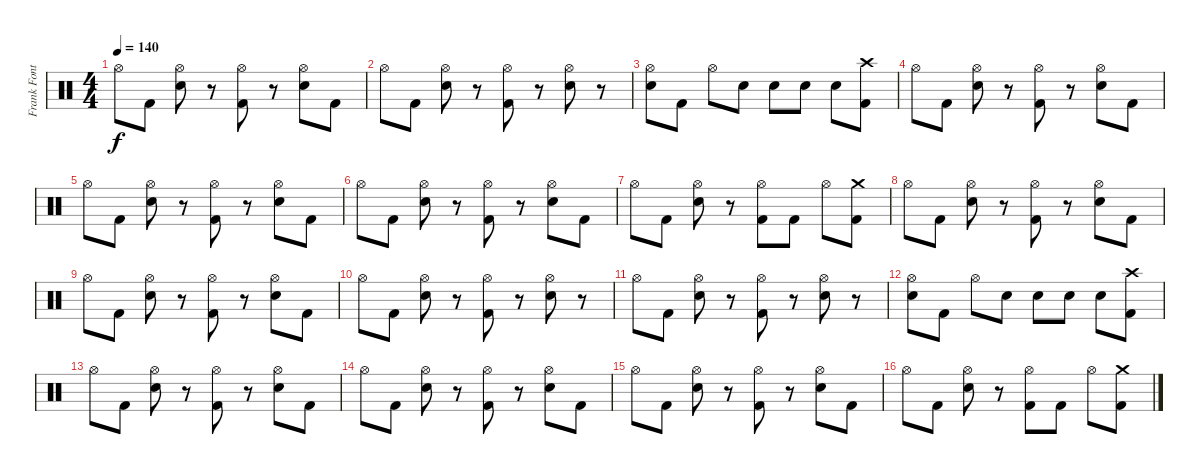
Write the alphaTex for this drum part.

\track ("Frank Fontsere" "Frank Font") {instrument percussion}
\staff {score}
\articulation defaults
\ts (4 4)
\tempo 140
\clef neutral
\ks c "Hi-Hat (open)".8{dy f} "Kick (hit) 2".8
("Hi-Hat (open)" "Electric Snare (hit)").8 r.8 ("Hi-Hat (open)" "Kick (hit) 2").8 r.8 ("Hi-Hat (open)" "Electric Snare (hit)").8 "Kick (hit) 2".8 |
"Hi-Hat (open)".8 "Kick (hit) 2".8 ("Hi-Hat (open)" "Electric Snare (hit)").8 r.8 ("Hi-Hat (open)" "Kick (hit) 2").8 r.8 ("Hi-Hat (open)" "Electric Snare (hit)").8 r.8 |
("Hi-Hat (open)" "Electric Snare (hit)").8 "Kick (hit) 2".8 "Hi-Hat (open)".8 "Electric Snare (hit)".8 "Electric Snare (hit)".8 "Electric Snare (hit)".8 "Electric Snare (hit)".8 ("Crash high (hit)" "Kick (hit) 2").8 |
"Hi-Hat (open)".8 "Kick (hit) 2".8 ("Hi-Hat (open)" "Electric Snare (hit)").8 r.8 ("Hi-Hat (open)" "Kick (hit) 2").8 r.8 ("Hi-Hat (open)" "Electric Snare (hit)").8 "Kick (hit) 2".8 |
"Hi-Hat (open)".8 "Kick (hit) 2".8 ("Hi-Hat (open)" "Electric Snare (hit)").8 r.8 ("Hi-Hat (open)" "Kick (hit) 2").8 r.8 ("Hi-Hat (open)" "Electric Snare (hit)").8 "Kick (hit) 2".8 |
"Hi-Hat (open)".8 "Kick (hit) 2".8 ("Hi-Hat (open)" "Electric Snare (hit)").8 r.8 ("Hi-Hat (open)" "Kick (hit) 2").8 r.8 ("Hi-Hat (open)" "Electric Snare (hit)").8 "Kick (hit) 2".8 |
"Hi-Hat (open)".8 "Kick (hit) 2".8 ("Hi-Hat (open)" "Electric Snare (hit)").8 r.8 ("Hi-Hat (open)" "Kick (hit) 2").8 "Kick (hit) 2".8 "Hi-Hat (open)".8 ("Crash medium (hit)" "Kick (hit) 2").8 |
"Hi-Hat (open)".8 "Kick (hit) 2".8 ("Hi-Hat (open)" "Electric Snare (hit)").8 r.8 ("Hi-Hat (open)" "Kick (hit) 2").8 r.8 ("Hi-Hat (open)" "Electric Snare (hit)").8 "Kick (hit) 2".8 |
"Hi-Hat (open)".8 "Kick (hit) 2".8 ("Hi-Hat (open)" "Electric Snare (hit)").8 r.8 ("Hi-Hat (open)" "Kick (hit) 2").8 r.8 ("Hi-Hat (open)" "Electric Snare (hit)").8 "Kick (hit) 2".8 |
"Hi-Hat (open)".8 "Kick (hit) 2".8 ("Hi-Hat (open)" "Electric Snare (hit)").8 r.8 ("Hi-Hat (open)" "Kick (hit) 2").8 r.8 ("Hi-Hat (open)" "Electric Snare (hit)").8 r.8 |
"Hi-Hat (open)".8 "Kick (hit) 2".8 ("Hi-Hat (open)" "Electric Snare (hit)").8 r.8 ("Hi-Hat (open)" "Kick (hit) 2").8 r.8 ("Hi-Hat (open)" "Electric Snare (hit)").8 r.8 |
("Hi-Hat (open)" "Electric Snare (hit)").8 "Kick (hit) 2".8 "Hi-Hat (open)".8 "Electric Snare (hit)".8 "Electric Snare (hit)".8 "Electric Snare (hit)".8 "Electric Snare (hit)".8 ("Crash high (hit)" "Kick (hit) 2").8 |
"Hi-Hat (open)".8 "Kick (hit) 2".8 ("Hi-Hat (open)" "Electric Snare (hit)").8 r.8 ("Hi-Hat (open)" "Kick (hit) 2").8 r.8 ("Hi-Hat (open)" "Electric Snare (hit)").8 "Kick (hit) 2".8 |
"Hi-Hat (open)".8 "Kick (hit) 2".8 ("Hi-Hat (open)" "Electric Snare (hit)").8 r.8 ("Hi-Hat (open)" "Kick (hit) 2").8 r.8 ("Hi-Hat (open)" "Electric Snare (hit)").8 "Kick (hit) 2".8 |
"Hi-Hat (open)".8 "Kick (hit) 2".8 ("Hi-Hat (open)" "Electric Snare (hit)").8 r.8 ("Hi-Hat (open)" "Kick (hit) 2").8 r.8 ("Hi-Hat (open)" "Electric Snare (hit)").8 "Kick (hit) 2".8 |
"Hi-Hat (open)".8 "Kick (hit) 2".8 ("Hi-Hat (open)" "Electric Snare (hit)").8 r.8 ("Hi-Hat (open)" "Kick (hit) 2").8 "Kick (hit) 2".8 "Hi-Hat (open)".8 ("Crash medium (hit)" "Kick (hit) 2").8
